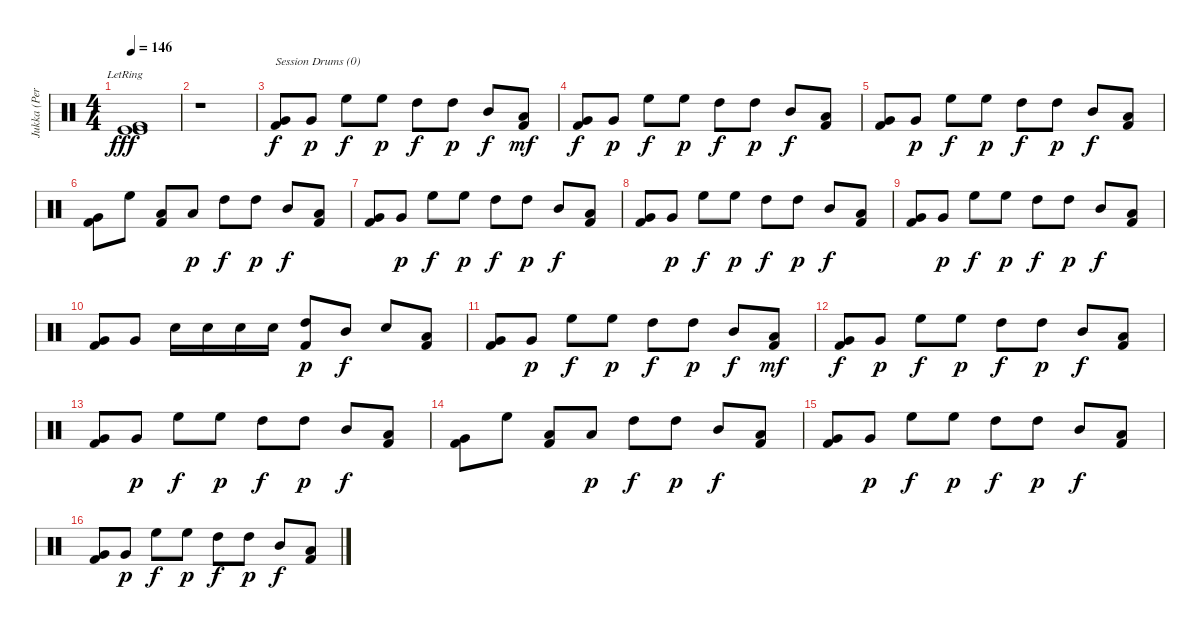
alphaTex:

\track ("Jukka (Percussion)" "Jukka (Per") {instrument percussion}
\staff {score}
\articulation defaults
\ts (4 4)
\tempo 146
\clef neutral
\ks c
("Kick (hit)" "Kick (hit)"{lr} "Kick (hit) 2").1{dy fff} |
r.1 |
("Very Low Tom (hit)" "Kick (hit) 2").8{txt "Session Drums (0)" dy f} "Very Low Tom (hit)".8{dy p} "High Floor Tom (hit)".8{dy f} "High Floor Tom (hit)".8{dy p} "High Tom (hit)".8{dy f} "High Tom (hit)".8{dy p} "Mid Tom (hit)".8{dy f} ("Low Tom (hit)" "Kick (hit) 2").8{dy mf} |
("Very Low Tom (hit)" "Kick (hit) 2").8{dy f} "Very Low Tom (hit)".8{dy p} "High Floor Tom (hit)".8{dy f} "High Floor Tom (hit)".8{dy p} "High Tom (hit)".8{dy f} "High Tom (hit)".8{dy p} "Mid Tom (hit)".8{dy f} ("Low Tom (hit)" "Kick (hit) 2").8 |
("Very Low Tom (hit)" "Kick (hit) 2").8 "Very Low Tom (hit)".8{dy p} "High Floor Tom (hit)".8{dy f} "High Floor Tom (hit)".8{dy p} "High Tom (hit)".8{dy f} "High Tom (hit)".8{dy p} "Mid Tom (hit)".8{dy f} ("Low Tom (hit)" "Kick (hit) 2").8 |
("Very Low Tom (hit)" "Kick (hit) 2").8 "High Floor Tom (hit)".8 ("Low Tom (hit)" "Kick (hit) 2").8 "Low Tom (hit)".8{dy p} "High Tom (hit)".8{dy f} "High Tom (hit)".8{dy p} "Mid Tom (hit)".8{dy f} ("Low Tom (hit)" "Kick (hit) 2").8 |
("Very Low Tom (hit)" "Kick (hit) 2").8 "Very Low Tom (hit)".8{dy p} "High Floor Tom (hit)".8{dy f} "High Floor Tom (hit)".8{dy p} "High Tom (hit)".8{dy f} "High Tom (hit)".8{dy p} "Mid Tom (hit)".8{dy f} ("Low Tom (hit)" "Kick (hit) 2").8 |
("Very Low Tom (hit)" "Kick (hit) 2").8 "Very Low Tom (hit)".8{dy p} "High Floor Tom (hit)".8{dy f} "High Floor Tom (hit)".8{dy p} "High Tom (hit)".8{dy f} "High Tom (hit)".8{dy p} "Mid Tom (hit)".8{dy f} ("Low Tom (hit)" "Kick (hit) 2").8 |
("Very Low Tom (hit)" "Kick (hit) 2").8 "Very Low Tom (hit)".8{dy p} "High Floor Tom (hit)".8{dy f} "High Floor Tom (hit)".8{dy p} "High Tom (hit)".8{dy f} "High Tom (hit)".8{dy p} "Mid Tom (hit)".8{dy f} ("Low Tom (hit)" "Kick (hit) 2").8 |
("Very Low Tom (hit)" "Kick (hit) 2").8 "Very Low Tom (hit)".8 "Snare (hit) 2".16 "Snare (hit) 2".16 "Snare (hit) 2".16 "Snare (hit) 2".16 ("High Tom (hit)" "Kick (hit) 2").8{dy p} "Mid Tom (hit)".8{dy f} "Snare (hit) 2".8 ("Low Tom (hit)" "Kick (hit) 2").8 |
("Very Low Tom (hit)" "Kick (hit) 2").8 "Very Low Tom (hit)".8{dy p} "High Floor Tom (hit)".8{dy f} "High Floor Tom (hit)".8{dy p} "High Tom (hit)".8{dy f} "High Tom (hit)".8{dy p} "Mid Tom (hit)".8{dy f} ("Low Tom (hit)" "Kick (hit) 2").8{dy mf} |
("Very Low Tom (hit)" "Kick (hit) 2").8{dy f} "Very Low Tom (hit)".8{dy p} "High Floor Tom (hit)".8{dy f} "High Floor Tom (hit)".8{dy p} "High Tom (hit)".8{dy f} "High Tom (hit)".8{dy p} "Mid Tom (hit)".8{dy f} ("Low Tom (hit)" "Kick (hit) 2").8 |
("Very Low Tom (hit)" "Kick (hit) 2").8 "Very Low Tom (hit)".8{dy p} "High Floor Tom (hit)".8{dy f} "High Floor Tom (hit)".8{dy p} "High Tom (hit)".8{dy f} "High Tom (hit)".8{dy p} "Mid Tom (hit)".8{dy f} ("Low Tom (hit)" "Kick (hit) 2").8 |
("Very Low Tom (hit)" "Kick (hit) 2").8 "High Floor Tom (hit)".8 ("Low Tom (hit)" "Kick (hit) 2").8 "Low Tom (hit)".8{dy p} "High Tom (hit)".8{dy f} "High Tom (hit)".8{dy p} "Mid Tom (hit)".8{dy f} ("Low Tom (hit)" "Kick (hit) 2").8 |
("Very Low Tom (hit)" "Kick (hit) 2").8 "Very Low Tom (hit)".8{dy p} "High Floor Tom (hit)".8{dy f} "High Floor Tom (hit)".8{dy p} "High Tom (hit)".8{dy f} "High Tom (hit)".8{dy p} "Mid Tom (hit)".8{dy f} ("Low Tom (hit)" "Kick (hit) 2").8 |
("Very Low Tom (hit)" "Kick (hit) 2").8 "Very Low Tom (hit)".8{dy p} "High Floor Tom (hit)".8{dy f} "High Floor Tom (hit)".8{dy p} "High Tom (hit)".8{dy f} "High Tom (hit)".8{dy p} "Mid Tom (hit)".8{dy f} ("Low Tom (hit)" "Kick (hit) 2").8
